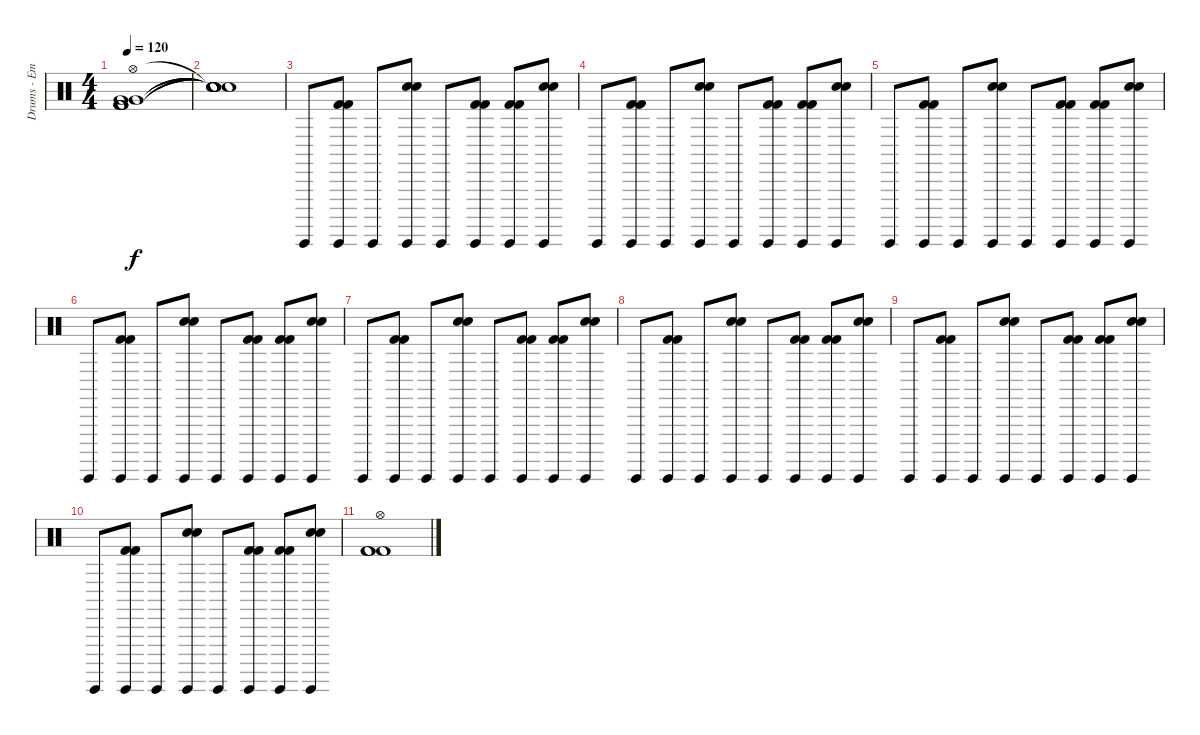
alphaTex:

\track ("Drums - Emhyr var Emreis" "Drums - Em") {instrument percussion}
\staff {score}
\articulation defaults
\ts (4 4)
\tempo 120
\clef neutral
\ks c
("Kick (hit) 2" "Kick (hit) 2" "Kick (hit) 2" "Very Low Tom (hit)" "Very Low Tom (hit)" "Hi-Hat (open)").1{dy f} |
("Snare (hit)"{t} "Snare (hit)"{t} "Snare (hit)"{t} "Snare (hit)"{t} "Snare (hit)"{t} "Snare (hit)"{t}).1 |
"Guiro (hit)".8 ("Guiro (hit)" "Kick (hit) 2" "Kick (hit) 2").8 "Guiro (hit)".8 ("Guiro (hit)" "Electric Snare (hit)" "Snare (hit) 2").8 "Guiro (hit)".8 ("Guiro (hit)" "Kick (hit) 2" "Kick (hit) 2").8 ("Guiro (hit)" "Kick (hit) 2" "Kick (hit) 2").8 ("Guiro (hit)" "Electric Snare (hit)" "Snare (hit) 2").8 |
"Guiro (hit)".8 ("Guiro (hit)" "Kick (hit) 2" "Kick (hit) 2").8 "Guiro (hit)".8 ("Guiro (hit)" "Electric Snare (hit)" "Snare (hit) 2").8 "Guiro (hit)".8 ("Guiro (hit)" "Kick (hit) 2" "Kick (hit) 2").8 ("Guiro (hit)" "Kick (hit) 2" "Kick (hit) 2").8 ("Guiro (hit)" "Electric Snare (hit)" "Snare (hit) 2").8 |
"Guiro (hit)".8 ("Guiro (hit)" "Kick (hit) 2" "Kick (hit) 2").8 "Guiro (hit)".8 ("Guiro (hit)" "Electric Snare (hit)" "Snare (hit) 2").8 "Guiro (hit)".8 ("Guiro (hit)" "Kick (hit) 2" "Kick (hit) 2").8 ("Guiro (hit)" "Kick (hit) 2" "Kick (hit) 2").8 ("Guiro (hit)" "Electric Snare (hit)" "Snare (hit) 2").8 |
"Guiro (hit)".8 ("Guiro (hit)" "Kick (hit) 2" "Kick (hit) 2").8 "Guiro (hit)".8 ("Guiro (hit)" "Electric Snare (hit)" "Snare (hit) 2").8 "Guiro (hit)".8 ("Guiro (hit)" "Kick (hit) 2" "Kick (hit) 2").8 ("Guiro (hit)" "Kick (hit) 2" "Kick (hit) 2").8 ("Guiro (hit)" "Electric Snare (hit)" "Snare (hit) 2").8 |
"Guiro (hit)".8 ("Guiro (hit)" "Kick (hit) 2" "Kick (hit) 2").8 "Guiro (hit)".8 ("Guiro (hit)" "Electric Snare (hit)" "Snare (hit) 2").8 "Guiro (hit)".8 ("Guiro (hit)" "Kick (hit) 2" "Kick (hit) 2").8 ("Guiro (hit)" "Kick (hit) 2" "Kick (hit) 2").8 ("Guiro (hit)" "Electric Snare (hit)" "Snare (hit) 2").8 |
"Guiro (hit)".8 ("Guiro (hit)" "Kick (hit) 2" "Kick (hit) 2").8 "Guiro (hit)".8 ("Guiro (hit)" "Electric Snare (hit)" "Snare (hit) 2").8 "Guiro (hit)".8 ("Guiro (hit)" "Kick (hit) 2" "Kick (hit) 2").8 ("Guiro (hit)" "Kick (hit) 2" "Kick (hit) 2").8 ("Guiro (hit)" "Electric Snare (hit)" "Snare (hit) 2").8 |
"Guiro (hit)".8 ("Guiro (hit)" "Kick (hit) 2" "Kick (hit) 2").8 "Guiro (hit)".8 ("Guiro (hit)" "Electric Snare (hit)" "Snare (hit) 2").8 "Guiro (hit)".8 ("Guiro (hit)" "Kick (hit) 2" "Kick (hit) 2").8 ("Guiro (hit)" "Kick (hit) 2" "Kick (hit) 2").8 ("Guiro (hit)" "Electric Snare (hit)" "Snare (hit) 2").8 |
"Guiro (hit)".8 ("Guiro (hit)" "Kick (hit) 2" "Kick (hit) 2").8 "Guiro (hit)".8 ("Guiro (hit)" "Electric Snare (hit)" "Snare (hit) 2").8 "Guiro (hit)".8 ("Guiro (hit)" "Kick (hit) 2" "Kick (hit) 2").8 ("Guiro (hit)" "Kick (hit) 2" "Kick (hit) 2").8 ("Guiro (hit)" "Electric Snare (hit)" "Snare (hit) 2").8 |
("Hi-Hat (open)" "Kick (hit) 2" "Kick (hit) 2" "Kick (hit) 2").1
